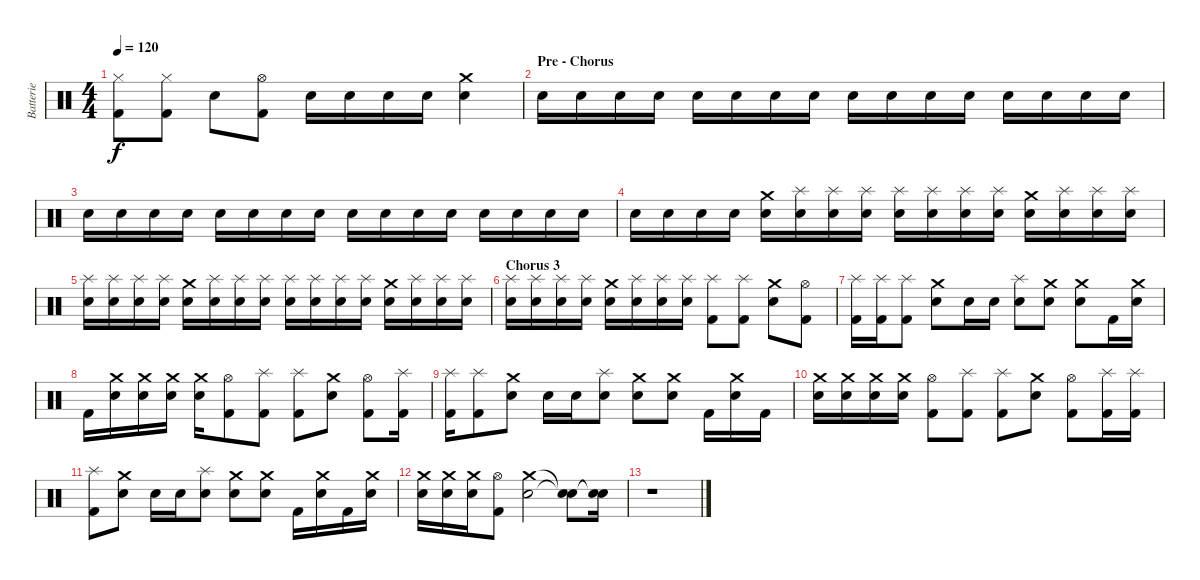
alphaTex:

\track ("Batterie" "Batterie") {instrument percussion}
\staff {score}
\articulation defaults
\ts (4 4)
\tempo 120
\clef neutral
\ks c
("Hi-Hat (closed)" "Kick (hit) 2").8{dy f} ("Hi-Hat (closed)" "Kick (hit) 2").8 "Snare (hit) 2".8 ("Hi-Hat (open)" "Kick (hit) 2").8 "Snare (hit) 2".16 "Snare (hit) 2".16 "Snare (hit) 2".16 "Snare (hit) 2".16 ("Crash medium (hit)" "Snare (hit) 2").4 |
\section ("" "Pre - Chorus")
"Snare (hit) 2".16{volume 8} "Snare (hit) 2".16{volume 13} "Snare (hit) 2".16 "Snare (hit) 2".16 "Snare (hit) 2".16 "Snare (hit) 2".16 "Snare (hit) 2".16 "Snare (hit) 2".16 "Snare (hit) 2".16 "Snare (hit) 2".16 "Snare (hit) 2".16 "Snare (hit) 2".16 "Snare (hit) 2".16{volume 8} "Snare (hit) 2".16{volume 13} "Snare (hit) 2".16 "Snare (hit) 2".16 |
"Snare (hit) 2".16 "Snare (hit) 2".16 "Snare (hit) 2".16 "Snare (hit) 2".16 "Snare (hit) 2".16 "Snare (hit) 2".16 "Snare (hit) 2".16 "Snare (hit) 2".16 "Snare (hit) 2".16{volume 8} "Snare (hit) 2".16{volume 13} "Snare (hit) 2".16 "Snare (hit) 2".16 "Snare (hit) 2".16 "Snare (hit) 2".16 "Snare (hit) 2".16 "Snare (hit) 2".16 |
"Snare (hit) 2".16 "Snare (hit) 2".16 "Snare (hit) 2".16 "Snare (hit) 2".16 ("Crash medium (hit)" "Snare (hit) 2").16{volume 16} ("Splash (hit)" "Snare (hit) 2").16 ("Splash (hit)" "Snare (hit) 2").16 ("Splash (hit)" "Snare (hit) 2").16 ("Splash (hit)" "Snare (hit) 2").16 ("Splash (hit)" "Snare (hit) 2").16 ("Splash (hit)" "Snare (hit) 2").16 ("Splash (hit)" "Snare (hit) 2").16 ("Crash medium (hit)" "Snare (hit) 2").16 ("Splash (hit)" "Snare (hit) 2").16 ("Splash (hit)" "Snare (hit) 2").16 ("Splash (hit)" "Snare (hit) 2").16 |
("Splash (hit)" "Snare (hit) 2").16 ("Splash (hit)" "Snare (hit) 2").16 ("Splash (hit)" "Snare (hit) 2").16 ("Splash (hit)" "Snare (hit) 2").16 ("Crash medium (hit)" "Snare (hit) 2").16 ("Splash (hit)" "Snare (hit) 2").16 ("Splash (hit)" "Snare (hit) 2").16 ("Splash (hit)" "Snare (hit) 2").16 ("Splash (hit)" "Snare (hit) 2").16 ("Splash (hit)" "Snare (hit) 2").16 ("Splash (hit)" "Snare (hit) 2").16 ("Splash (hit)" "Snare (hit) 2").16 ("Crash medium (hit)" "Snare (hit) 2").16 ("Splash (hit)" "Snare (hit) 2").16 ("Splash (hit)" "Snare (hit) 2").16 ("Splash (hit)" "Snare (hit) 2").16 |
\section ("" "Chorus 3")
("Splash (hit)" "Snare (hit) 2").16 ("Splash (hit)" "Snare (hit) 2").16 ("Splash (hit)" "Snare (hit) 2").16 ("Splash (hit)" "Snare (hit) 2").16 ("Crash medium (hit)" "Snare (hit) 2").16 ("Splash (hit)" "Snare (hit) 2").16 ("Splash (hit)" "Snare (hit) 2").16 ("Splash (hit)" "Snare (hit) 2").16 ("Splash (hit)" "Kick (hit) 2").8 ("Splash (hit)" "Kick (hit) 2").8 ("Crash medium (hit)" "Snare (hit) 2").8 ("Hi-Hat (open)" "Kick (hit) 2").8 |
("Splash (hit)" "Kick (hit) 2").16 ("Splash (hit)" "Kick (hit) 2").16 ("Splash (hit)" "Kick (hit) 2").8 ("Crash medium (hit)" "Snare (hit) 2").8 "Snare (hit) 2".16 "Snare (hit) 2".16 ("Splash (hit)" "Snare (hit) 2").8 ("Crash medium (hit)" "Snare (hit) 2").8 ("Crash medium (hit)" "Snare (hit) 2").8 "Kick (hit) 2".16 ("Crash medium (hit)" "Snare (hit) 2").16 |
"Kick (hit) 2".16 ("Crash medium (hit)" "Snare (hit) 2").16 ("Crash medium (hit)" "Snare (hit) 2").16 ("Crash medium (hit)" "Snare (hit) 2").16 ("Crash medium (hit)" "Snare (hit) 2").16 ("Hi-Hat (open)" "Kick (hit) 2").8 ("Splash (hit)" "Kick (hit) 2").8 ("Splash (hit)" "Kick (hit) 2").8 ("Crash medium (hit)" "Snare (hit) 2").8 ("Hi-Hat (open)" "Kick (hit) 2").8 ("Splash (hit)" "Kick (hit) 2").16 |
("Splash (hit)" "Kick (hit) 2").16 ("Splash (hit)" "Kick (hit) 2").8 ("Crash medium (hit)" "Snare (hit) 2").8 "Snare (hit) 2".16 "Snare (hit) 2".16 ("Splash (hit)" "Snare (hit) 2").8 ("Crash medium (hit)" "Snare (hit) 2").8 ("Crash medium (hit)" "Snare (hit) 2").8 "Kick (hit) 2".16 ("Crash medium (hit)" "Snare (hit) 2").16 "Kick (hit) 2".16 |
("Crash medium (hit)" "Snare (hit) 2").16 ("Crash medium (hit)" "Snare (hit) 2").16 ("Crash medium (hit)" "Snare (hit) 2").16 ("Crash medium (hit)" "Snare (hit) 2").16 ("Hi-Hat (open)" "Kick (hit) 2").8 ("Splash (hit)" "Kick (hit) 2").8 ("Splash (hit)" "Kick (hit) 2").8 ("Crash medium (hit)" "Snare (hit) 2").8 ("Hi-Hat (open)" "Kick (hit) 2").8 ("Splash (hit)" "Kick (hit) 2").16 ("Splash (hit)" "Kick (hit) 2").16 |
("Splash (hit)" "Kick (hit) 2").8 ("Crash medium (hit)" "Snare (hit) 2").8 "Snare (hit) 2".16 "Snare (hit) 2".16 ("Splash (hit)" "Snare (hit) 2").8 ("Crash medium (hit)" "Snare (hit) 2").8 ("Crash medium (hit)" "Snare (hit) 2").8 "Kick (hit) 2".16 ("Crash medium (hit)" "Snare (hit) 2").16 "Kick (hit) 2".16 ("Crash medium (hit)" "Snare (hit) 2").16 |
("Crash medium (hit)" "Snare (hit) 2").16 ("Crash medium (hit)" "Snare (hit) 2").16 ("Crash medium (hit)" "Snare (hit) 2").16 ("Hi-Hat (open)" "Kick (hit) 2").8 ("Crash medium (hit)" "Snare (hit) 2").2 ("Snare (hit)"{t} "Snare (hit)"{t}).8 ("Snare (hit)"{t} "Snare (hit)"{t}).16 |
r.1
